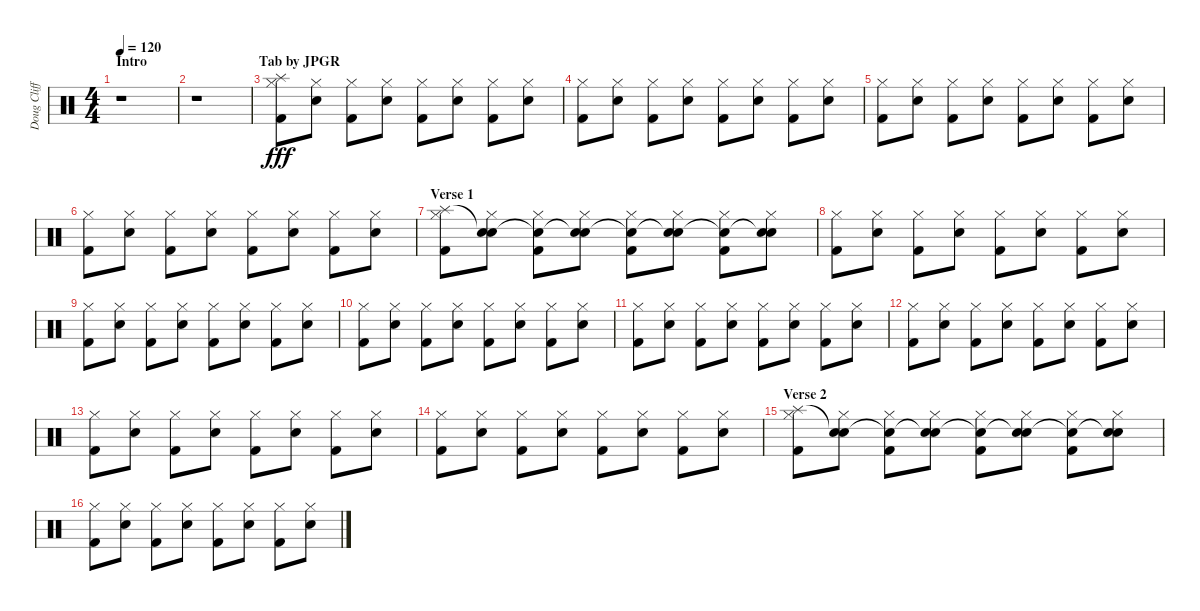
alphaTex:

\track ("Doug Clifford" "Doug Cliff") {instrument percussion}
\staff {score}
\articulation defaults
\ts (4 4)
\section ("" "Intro                                Tab by JPGR")
\tempo 120
\clef neutral
\ks c
r.1{dy fff} |
r.1 |
("Splash (hit)" "Hi-Hat (closed)" "Kick (hit) 2").8 ("Hi-Hat (closed)" "Snare (hit) 2").8 ("Hi-Hat (closed)" "Kick (hit) 2").8 ("Hi-Hat (closed)" "Snare (hit) 2").8 ("Hi-Hat (closed)" "Kick (hit) 2").8 ("Hi-Hat (closed)" "Snare (hit) 2").8 ("Hi-Hat (closed)" "Kick (hit) 2").8 ("Hi-Hat (closed)" "Snare (hit) 2").8 |
("Hi-Hat (closed)" "Kick (hit) 2").8 ("Hi-Hat (closed)" "Snare (hit) 2").8 ("Hi-Hat (closed)" "Kick (hit) 2").8 ("Hi-Hat (closed)" "Snare (hit) 2").8 ("Hi-Hat (closed)" "Kick (hit) 2").8 ("Hi-Hat (closed)" "Snare (hit) 2").8 ("Hi-Hat (closed)" "Kick (hit) 2").8 ("Hi-Hat (closed)" "Snare (hit) 2").8 |
("Hi-Hat (closed)" "Kick (hit) 2").8 ("Hi-Hat (closed)" "Snare (hit) 2").8 ("Hi-Hat (closed)" "Kick (hit) 2").8 ("Hi-Hat (closed)" "Snare (hit) 2").8 ("Hi-Hat (closed)" "Kick (hit) 2").8 ("Hi-Hat (closed)" "Snare (hit) 2").8 ("Hi-Hat (closed)" "Kick (hit) 2").8 ("Hi-Hat (closed)" "Snare (hit) 2").8 |
("Hi-Hat (closed)" "Kick (hit) 2").8 ("Hi-Hat (closed)" "Snare (hit) 2").8 ("Hi-Hat (closed)" "Kick (hit) 2").8 ("Hi-Hat (closed)" "Snare (hit) 2").8 ("Hi-Hat (closed)" "Kick (hit) 2").8 ("Hi-Hat (closed)" "Snare (hit) 2").8 ("Hi-Hat (closed)" "Kick (hit) 2").8 ("Hi-Hat (closed)" "Snare (hit) 2").8 |
\section ("" "Verse 1")
("Splash (hit)" "Hi-Hat (closed)" "Kick (hit) 2").8 ("Snare (hit)"{t} "Hi-Hat (closed)" "Snare (hit) 2").8 ("Snare (hit)"{t} "Hi-Hat (closed)" "Kick (hit) 2").8 ("Snare (hit)"{t} "Hi-Hat (closed)" "Snare (hit) 2").8 ("Snare (hit)"{t} "Hi-Hat (closed)" "Kick (hit) 2").8 ("Snare (hit)"{t} "Hi-Hat (closed)" "Snare (hit) 2").8 ("Snare (hit)"{t} "Hi-Hat (closed)" "Kick (hit) 2").8 ("Snare (hit)"{t} "Hi-Hat (closed)" "Snare (hit) 2").8 |
("Hi-Hat (closed)" "Kick (hit) 2").8 ("Hi-Hat (closed)" "Snare (hit) 2").8 ("Hi-Hat (closed)" "Kick (hit) 2").8 ("Hi-Hat (closed)" "Snare (hit) 2").8 ("Hi-Hat (closed)" "Kick (hit) 2").8 ("Hi-Hat (closed)" "Snare (hit) 2").8 ("Hi-Hat (closed)" "Kick (hit) 2").8 ("Hi-Hat (closed)" "Snare (hit) 2").8 |
("Hi-Hat (closed)" "Kick (hit) 2").8 ("Hi-Hat (closed)" "Snare (hit) 2").8 ("Hi-Hat (closed)" "Kick (hit) 2").8 ("Hi-Hat (closed)" "Snare (hit) 2").8 ("Hi-Hat (closed)" "Kick (hit) 2").8 ("Hi-Hat (closed)" "Snare (hit) 2").8 ("Hi-Hat (closed)" "Kick (hit) 2").8 ("Hi-Hat (closed)" "Snare (hit) 2").8 |
("Hi-Hat (closed)" "Kick (hit) 2").8 ("Hi-Hat (closed)" "Snare (hit) 2").8 ("Hi-Hat (closed)" "Kick (hit) 2").8 ("Hi-Hat (closed)" "Snare (hit) 2").8 ("Hi-Hat (closed)" "Kick (hit) 2").8 ("Hi-Hat (closed)" "Snare (hit) 2").8 ("Hi-Hat (closed)" "Kick (hit) 2").8 ("Hi-Hat (closed)" "Snare (hit) 2").8 |
("Hi-Hat (closed)" "Kick (hit) 2").8 ("Hi-Hat (closed)" "Snare (hit) 2").8 ("Hi-Hat (closed)" "Kick (hit) 2").8 ("Hi-Hat (closed)" "Snare (hit) 2").8 ("Hi-Hat (closed)" "Kick (hit) 2").8 ("Hi-Hat (closed)" "Snare (hit) 2").8 ("Hi-Hat (closed)" "Kick (hit) 2").8 ("Hi-Hat (closed)" "Snare (hit) 2").8 |
("Hi-Hat (closed)" "Kick (hit) 2").8 ("Hi-Hat (closed)" "Snare (hit) 2").8 ("Hi-Hat (closed)" "Kick (hit) 2").8 ("Hi-Hat (closed)" "Snare (hit) 2").8 ("Hi-Hat (closed)" "Kick (hit) 2").8 ("Hi-Hat (closed)" "Snare (hit) 2").8 ("Hi-Hat (closed)" "Kick (hit) 2").8 ("Hi-Hat (closed)" "Snare (hit) 2").8 |
("Hi-Hat (closed)" "Kick (hit) 2").8 ("Hi-Hat (closed)" "Snare (hit) 2").8 ("Hi-Hat (closed)" "Kick (hit) 2").8 ("Hi-Hat (closed)" "Snare (hit) 2").8 ("Hi-Hat (closed)" "Kick (hit) 2").8 ("Hi-Hat (closed)" "Snare (hit) 2").8 ("Hi-Hat (closed)" "Kick (hit) 2").8 ("Hi-Hat (closed)" "Snare (hit) 2").8 |
("Hi-Hat (closed)" "Kick (hit) 2").8 ("Hi-Hat (closed)" "Snare (hit) 2").8 ("Hi-Hat (closed)" "Kick (hit) 2").8 ("Hi-Hat (closed)" "Snare (hit) 2").8 ("Hi-Hat (closed)" "Kick (hit) 2").8 ("Hi-Hat (closed)" "Snare (hit) 2").8 ("Hi-Hat (closed)" "Kick (hit) 2").8 ("Hi-Hat (closed)" "Snare (hit) 2").8 |
\section ("" "Verse 2")
("Splash (hit)" "Hi-Hat (closed)" "Kick (hit) 2").8 ("Snare (hit)"{t} "Hi-Hat (closed)" "Snare (hit) 2").8 ("Snare (hit)"{t} "Hi-Hat (closed)" "Kick (hit) 2").8 ("Snare (hit)"{t} "Hi-Hat (closed)" "Snare (hit) 2").8 ("Snare (hit)"{t} "Hi-Hat (closed)" "Kick (hit) 2").8 ("Snare (hit)"{t} "Hi-Hat (closed)" "Snare (hit) 2").8 ("Snare (hit)"{t} "Hi-Hat (closed)" "Kick (hit) 2").8 ("Snare (hit)"{t} "Hi-Hat (closed)" "Snare (hit) 2").8 |
("Hi-Hat (closed)" "Kick (hit) 2").8 ("Hi-Hat (closed)" "Snare (hit) 2").8 ("Hi-Hat (closed)" "Kick (hit) 2").8 ("Hi-Hat (closed)" "Snare (hit) 2").8 ("Hi-Hat (closed)" "Kick (hit) 2").8 ("Hi-Hat (closed)" "Snare (hit) 2").8 ("Hi-Hat (closed)" "Kick (hit) 2").8 ("Hi-Hat (closed)" "Snare (hit) 2").8
